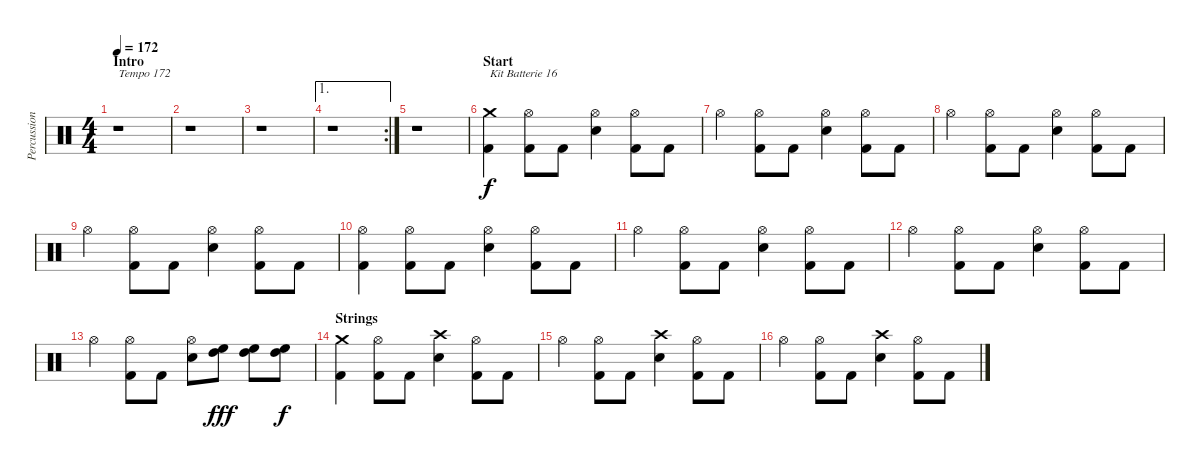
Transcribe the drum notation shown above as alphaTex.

\track ("Percussions" "Percussion") {instrument percussion}
\staff {score}
\articulation defaults
\ts (4 4)
\section ("" "Intro")
\tempo 172
\clef neutral
\ks c
r.1{txt "Tempo 172" dy f} |
r.1 |
r.1 |
\ae 1
\rc 2
r.1 |
r.1 |
\section ("" "Start")
("Crash medium (hit)" "Kick (hit) 2").4{txt "Kit Batterie 16"} ("Hi-Hat (open)" "Kick (hit) 2").8 "Kick (hit) 2".8 ("Hi-Hat (open)" "Snare (hit) 2").4 ("Hi-Hat (open)" "Kick (hit) 2").8 "Kick (hit) 2".8 |
"Hi-Hat (open)".4 ("Hi-Hat (open)" "Kick (hit) 2").8 "Kick (hit) 2".8 ("Hi-Hat (open)" "Snare (hit) 2").4 ("Hi-Hat (open)" "Kick (hit) 2").8 "Kick (hit) 2".8 |
"Hi-Hat (open)".4 ("Hi-Hat (open)" "Kick (hit) 2").8 "Kick (hit) 2".8 ("Hi-Hat (open)" "Snare (hit) 2").4 ("Hi-Hat (open)" "Kick (hit) 2").8 "Kick (hit) 2".8 |
"Hi-Hat (open)".4 ("Hi-Hat (open)" "Kick (hit) 2").8 "Kick (hit) 2".8 ("Hi-Hat (open)" "Snare (hit) 2").4 ("Hi-Hat (open)" "Kick (hit) 2").8 "Kick (hit) 2".8 |
("Hi-Hat (open)" "Kick (hit) 2").4 ("Hi-Hat (open)" "Kick (hit) 2").8 "Kick (hit) 2".8 ("Hi-Hat (open)" "Snare (hit) 2").4 ("Hi-Hat (open)" "Kick (hit) 2").8 "Kick (hit) 2".8 |
"Hi-Hat (open)".4 ("Hi-Hat (open)" "Kick (hit) 2").8 "Kick (hit) 2".8 ("Hi-Hat (open)" "Snare (hit) 2").4 ("Hi-Hat (open)" "Kick (hit) 2").8 "Kick (hit) 2".8 |
"Hi-Hat (open)".4 ("Hi-Hat (open)" "Kick (hit) 2").8 "Kick (hit) 2".8 ("Hi-Hat (open)" "Snare (hit) 2").4 ("Hi-Hat (open)" "Kick (hit) 2").8 "Kick (hit) 2".8 |
"Hi-Hat (open)".4 ("Hi-Hat (open)" "Kick (hit) 2").8 "Kick (hit) 2".8 ("Hi-Hat (open)" "Snare (hit) 2").8 ("High Tom (hit)" "High Floor Tom (hit)").8{dy fff} ("High Tom (hit)" "High Floor Tom (hit)").8 ("High Tom (hit)" "High Floor Tom (hit)").8{dy f} |
\section ("" "Strings")
("Crash medium (hit)" "Kick (hit) 2").4 ("Hi-Hat (open)" "Kick (hit) 2").8 "Kick (hit) 2".8 ("Crash high (hit)" "Snare (hit) 2").4 ("Hi-Hat (open)" "Kick (hit) 2").8 "Kick (hit) 2".8 |
"Hi-Hat (open)".4 ("Hi-Hat (open)" "Kick (hit) 2").8 "Kick (hit) 2".8 ("Crash high (hit)" "Snare (hit) 2").4 ("Hi-Hat (open)" "Kick (hit) 2").8 "Kick (hit) 2".8 |
"Hi-Hat (open)".4 ("Hi-Hat (open)" "Kick (hit) 2").8 "Kick (hit) 2".8 ("Crash high (hit)" "Snare (hit) 2").4 ("Hi-Hat (open)" "Kick (hit) 2").8 "Kick (hit) 2".8
